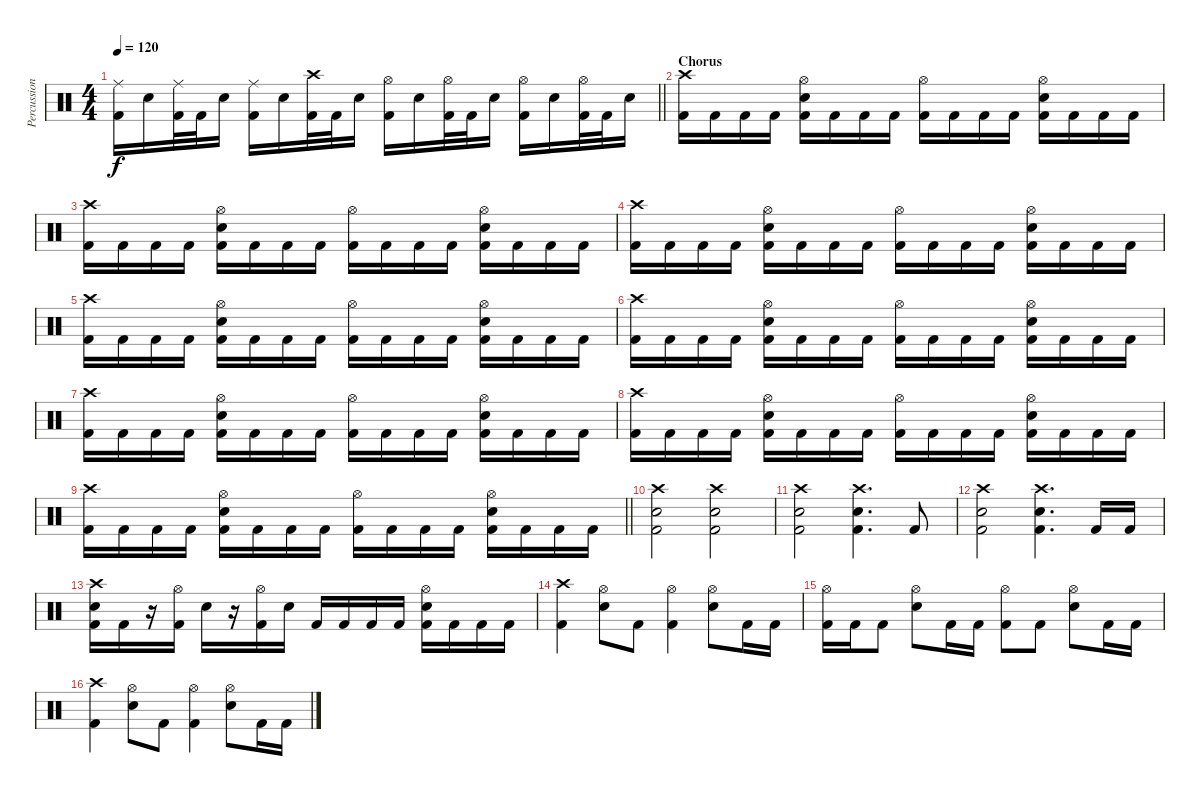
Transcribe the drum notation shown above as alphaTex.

\track ("Percussion" "Percussion") {instrument percussion}
\staff {score}
\articulation defaults
\ts (4 4)
\tempo 120
\clef neutral
\barLineRight lightlight
\ks c
("Ride (middle)" "Kick (hit) 2").16{dy f} "Electric Snare (hit)".16 ("Ride (middle)" "Kick (hit) 2").32 "Kick (hit) 2".32 "Electric Snare (hit)".16 ("Ride (middle)" "Kick (hit) 2").16 "Electric Snare (hit)".16 ("Crash high (hit)" "Kick (hit) 2").32 "Kick (hit) 2".32 "Electric Snare (hit)".16 ("Hi-Hat (open)" "Kick (hit) 2").16 "Electric Snare (hit)".16 ("Hi-Hat (open)" "Kick (hit) 2").32 "Kick (hit) 2".32 "Electric Snare (hit)".16 ("Hi-Hat (open)" "Kick (hit) 2").16 "Electric Snare (hit)".16 ("Hi-Hat (open)" "Kick (hit) 2").32 "Kick (hit) 2".32 "Electric Snare (hit)".16 |
\section ("" "Chorus")
("Crash high (hit)" "Kick (hit) 2").16 "Kick (hit) 2".16 "Kick (hit) 2".16 "Kick (hit) 2".16 ("Hi-Hat (open)" "Electric Snare (hit)" "Kick (hit) 2").16 "Kick (hit) 2".16 "Kick (hit) 2".16 "Kick (hit) 2".16 ("Hi-Hat (open)" "Kick (hit) 2").16 "Kick (hit) 2".16 "Kick (hit) 2".16 "Kick (hit) 2".16 ("Hi-Hat (open)" "Electric Snare (hit)" "Kick (hit) 2").16 "Kick (hit) 2".16 "Kick (hit) 2".16 "Kick (hit) 2".16 |
("Crash high (hit)" "Kick (hit) 2").16 "Kick (hit) 2".16 "Kick (hit) 2".16 "Kick (hit) 2".16 ("Hi-Hat (open)" "Electric Snare (hit)" "Kick (hit) 2").16 "Kick (hit) 2".16 "Kick (hit) 2".16 "Kick (hit) 2".16 ("Hi-Hat (open)" "Kick (hit) 2").16 "Kick (hit) 2".16 "Kick (hit) 2".16 "Kick (hit) 2".16 ("Hi-Hat (open)" "Electric Snare (hit)" "Kick (hit) 2").16 "Kick (hit) 2".16 "Kick (hit) 2".16 "Kick (hit) 2".16 |
("Crash high (hit)" "Kick (hit) 2").16 "Kick (hit) 2".16 "Kick (hit) 2".16 "Kick (hit) 2".16 ("Hi-Hat (open)" "Electric Snare (hit)" "Kick (hit) 2").16 "Kick (hit) 2".16 "Kick (hit) 2".16 "Kick (hit) 2".16 ("Hi-Hat (open)" "Kick (hit) 2").16 "Kick (hit) 2".16 "Kick (hit) 2".16 "Kick (hit) 2".16 ("Hi-Hat (open)" "Electric Snare (hit)" "Kick (hit) 2").16 "Kick (hit) 2".16 "Kick (hit) 2".16 "Kick (hit) 2".16 |
("Crash high (hit)" "Kick (hit) 2").16 "Kick (hit) 2".16 "Kick (hit) 2".16 "Kick (hit) 2".16 ("Hi-Hat (open)" "Electric Snare (hit)" "Kick (hit) 2").16 "Kick (hit) 2".16 "Kick (hit) 2".16 "Kick (hit) 2".16 ("Hi-Hat (open)" "Kick (hit) 2").16 "Kick (hit) 2".16 "Kick (hit) 2".16 "Kick (hit) 2".16 ("Hi-Hat (open)" "Electric Snare (hit)" "Kick (hit) 2").16 "Kick (hit) 2".16 "Kick (hit) 2".16 "Kick (hit) 2".16 |
("Crash high (hit)" "Kick (hit) 2").16 "Kick (hit) 2".16 "Kick (hit) 2".16 "Kick (hit) 2".16 ("Hi-Hat (open)" "Electric Snare (hit)" "Kick (hit) 2").16 "Kick (hit) 2".16 "Kick (hit) 2".16 "Kick (hit) 2".16 ("Hi-Hat (open)" "Kick (hit) 2").16 "Kick (hit) 2".16 "Kick (hit) 2".16 "Kick (hit) 2".16 ("Hi-Hat (open)" "Electric Snare (hit)" "Kick (hit) 2").16 "Kick (hit) 2".16 "Kick (hit) 2".16 "Kick (hit) 2".16 |
("Crash high (hit)" "Kick (hit) 2").16 "Kick (hit) 2".16 "Kick (hit) 2".16 "Kick (hit) 2".16 ("Hi-Hat (open)" "Electric Snare (hit)" "Kick (hit) 2").16 "Kick (hit) 2".16 "Kick (hit) 2".16 "Kick (hit) 2".16 ("Hi-Hat (open)" "Kick (hit) 2").16 "Kick (hit) 2".16 "Kick (hit) 2".16 "Kick (hit) 2".16 ("Hi-Hat (open)" "Electric Snare (hit)" "Kick (hit) 2").16 "Kick (hit) 2".16 "Kick (hit) 2".16 "Kick (hit) 2".16 |
("Crash high (hit)" "Kick (hit) 2").16 "Kick (hit) 2".16 "Kick (hit) 2".16 "Kick (hit) 2".16 ("Hi-Hat (open)" "Electric Snare (hit)" "Kick (hit) 2").16 "Kick (hit) 2".16 "Kick (hit) 2".16 "Kick (hit) 2".16 ("Hi-Hat (open)" "Kick (hit) 2").16 "Kick (hit) 2".16 "Kick (hit) 2".16 "Kick (hit) 2".16 ("Hi-Hat (open)" "Electric Snare (hit)" "Kick (hit) 2").16 "Kick (hit) 2".16 "Kick (hit) 2".16 "Kick (hit) 2".16 |
\barLineRight lightlight
("Crash high (hit)" "Kick (hit) 2").16 "Kick (hit) 2".16 "Kick (hit) 2".16 "Kick (hit) 2".16 ("Hi-Hat (open)" "Electric Snare (hit)" "Kick (hit) 2").16 "Kick (hit) 2".16 "Kick (hit) 2".16 "Kick (hit) 2".16 ("Hi-Hat (open)" "Kick (hit) 2").16 "Kick (hit) 2".16 "Kick (hit) 2".16 "Kick (hit) 2".16 ("Hi-Hat (open)" "Electric Snare (hit)" "Kick (hit) 2").16 "Kick (hit) 2".16 "Kick (hit) 2".16 "Kick (hit) 2".16 |
\section ("" "")
("Crash high (hit)" "Electric Snare (hit)" "Kick (hit) 2").2 ("Crash high (hit)" "Electric Snare (hit)" "Kick (hit) 2").2 |
("Crash high (hit)" "Electric Snare (hit)" "Kick (hit) 2").2 ("Crash high (hit)" "Electric Snare (hit)" "Kick (hit) 2").4{d} "Kick (hit) 2".8 |
("Crash high (hit)" "Electric Snare (hit)" "Kick (hit) 2").2 ("Crash high (hit)" "Electric Snare (hit)" "Kick (hit) 2").4{d} "Kick (hit) 2".16 "Kick (hit) 2".16 |
("Crash high (hit)" "Electric Snare (hit)" "Kick (hit) 2").16 "Kick (hit) 2".16 r.16 ("Hi-Hat (open)" "Kick (hit) 2").16 "Electric Snare (hit)".16 r.16 ("Hi-Hat (open)" "Kick (hit) 2").16 "Electric Snare (hit)".16 "Kick (hit) 2".16 "Kick (hit) 2".16 "Kick (hit) 2".16 "Kick (hit) 2".16 ("Hi-Hat (open)" "Electric Snare (hit)" "Kick (hit) 2").16 "Kick (hit) 2".16 "Kick (hit) 2".16 "Kick (hit) 2".16 |
("Crash high (hit)" "Kick (hit) 2").4 ("Hi-Hat (open)" "Electric Snare (hit)").8 "Kick (hit) 2".8 ("Hi-Hat (open)" "Kick (hit) 2").4 ("Hi-Hat (open)" "Electric Snare (hit)").8 "Kick (hit) 2".16 "Kick (hit) 2".16 |
("Hi-Hat (open)" "Kick (hit) 2").16 "Kick (hit) 2".16 "Kick (hit) 2".8 ("Hi-Hat (open)" "Electric Snare (hit)").8 "Kick (hit) 2".16 "Kick (hit) 2".16 ("Hi-Hat (open)" "Kick (hit) 2").8 "Kick (hit) 2".8 ("Hi-Hat (open)" "Electric Snare (hit)").8 "Kick (hit) 2".16 "Kick (hit) 2".16 |
("Crash high (hit)" "Kick (hit) 2").4 ("Hi-Hat (open)" "Electric Snare (hit)").8 "Kick (hit) 2".8 ("Hi-Hat (open)" "Kick (hit) 2").4 ("Hi-Hat (open)" "Electric Snare (hit)").8 "Kick (hit) 2".16 "Kick (hit) 2".16
